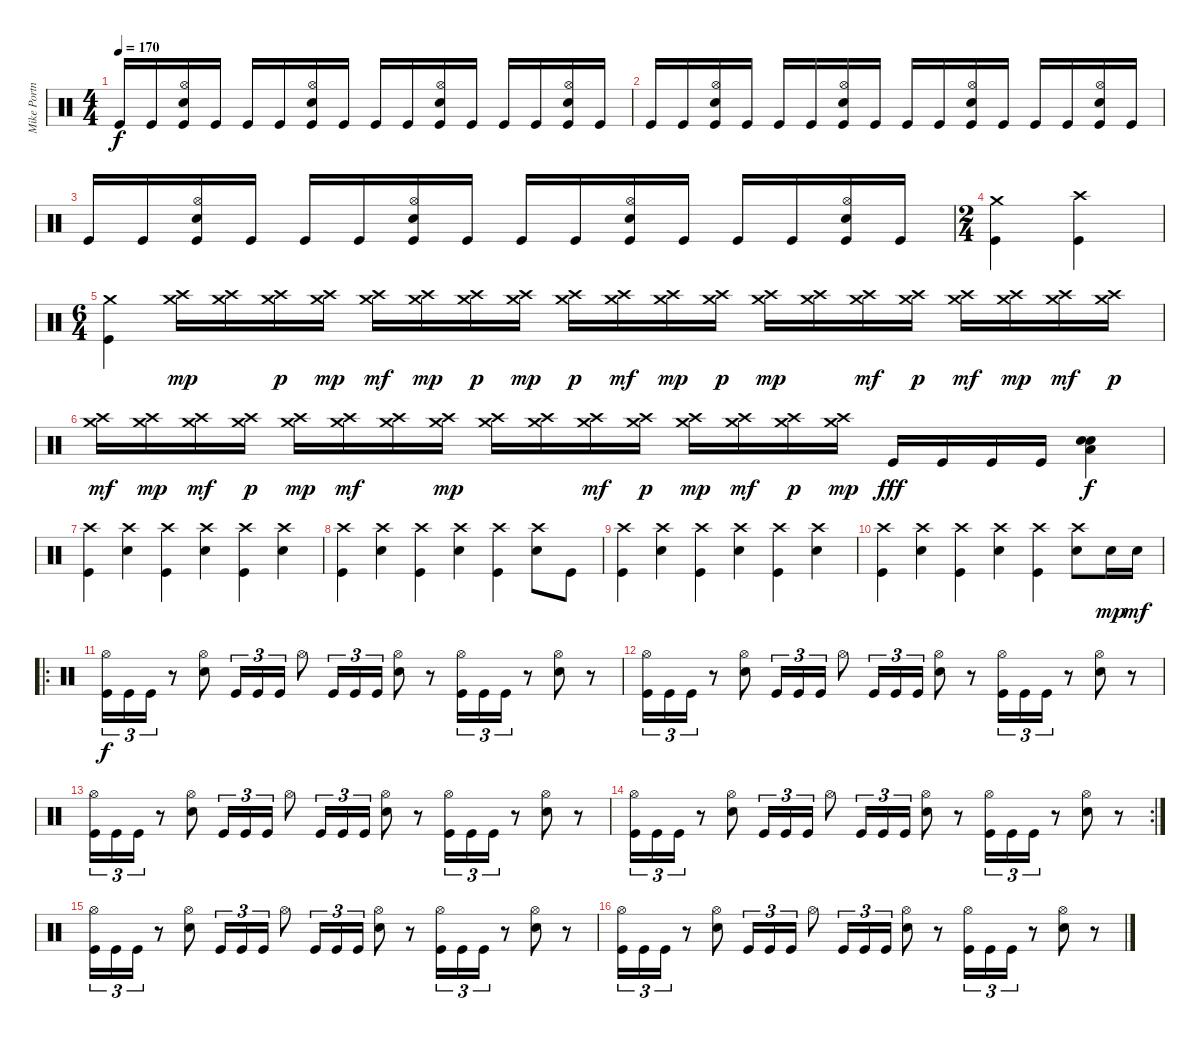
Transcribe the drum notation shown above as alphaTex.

\track ("Mike Portnoy" "Mike Portn") {instrument percussion}
\staff {score}
\articulation defaults
\ts (4 4)
\tempo 170
\clef neutral
\ks c "Kick (hit)".16{dy f} "Kick (hit)".16
("Hi-Hat (open)" "Kick (hit)" "Electric Snare (hit)").16 "Kick (hit)".16 "Kick (hit)".16 "Kick (hit)".16 ("Hi-Hat (open)" "Kick (hit)" "Electric Snare (hit)").16 "Kick (hit)".16 "Kick (hit)".16 "Kick (hit)".16 ("Hi-Hat (open)" "Kick (hit)" "Electric Snare (hit)").16 "Kick (hit)".16 "Kick (hit)".16 "Kick (hit)".16 ("Hi-Hat (open)" "Kick (hit)" "Electric Snare (hit)").16 "Kick (hit)".16 |
"Kick (hit)".16 "Kick (hit)".16 ("Hi-Hat (open)" "Kick (hit)" "Electric Snare (hit)").16 "Kick (hit)".16 "Kick (hit)".16 "Kick (hit)".16 ("Hi-Hat (open)" "Kick (hit)" "Electric Snare (hit)").16 "Kick (hit)".16 "Kick (hit)".16 "Kick (hit)".16 ("Hi-Hat (open)" "Kick (hit)" "Electric Snare (hit)").16 "Kick (hit)".16 "Kick (hit)".16 "Kick (hit)".16 ("Hi-Hat (open)" "Kick (hit)" "Electric Snare (hit)").16 "Kick (hit)".16 |
"Kick (hit)".16 "Kick (hit)".16 ("Hi-Hat (open)" "Kick (hit)" "Electric Snare (hit)").16 "Kick (hit)".16 "Kick (hit)".16 "Kick (hit)".16 ("Hi-Hat (open)" "Kick (hit)" "Electric Snare (hit)").16 "Kick (hit)".16 "Kick (hit)".16 "Kick (hit)".16 ("Hi-Hat (open)" "Kick (hit)" "Electric Snare (hit)").16 "Kick (hit)".16 "Kick (hit)".16 "Kick (hit)".16 ("Hi-Hat (open)" "Kick (hit)" "Electric Snare (hit)").16 "Kick (hit)".16 |
\ts (2 4)
("Crash medium (hit)" "Kick (hit)").4 ("Crash high (hit)" "Kick (hit)").4 |
\ts (6 4)
("Crash medium (hit)" "Kick (hit)").4 ("Crash medium (hit)" "Crash high (hit)").16{dy mp} ("Crash medium (hit)" "Crash high (hit)").16 ("Crash medium (hit)" "Crash high (hit)").16{dy p} ("Crash medium (hit)" "Crash high (hit)").16{dy mp} ("Crash medium (hit)" "Crash high (hit)").16{dy mf} ("Crash medium (hit)" "Crash high (hit)").16{dy mp} ("Crash medium (hit)" "Crash high (hit)").16{dy p} ("Crash medium (hit)" "Crash high (hit)").16{dy mp} ("Crash medium (hit)" "Crash high (hit)").16{dy p} ("Crash medium (hit)" "Crash high (hit)").16{dy mf} ("Crash medium (hit)" "Crash high (hit)").16{dy mp} ("Crash medium (hit)" "Crash high (hit)").16{dy p} ("Crash medium (hit)" "Crash high (hit)").16{dy mp} ("Crash medium (hit)" "Crash high (hit)").16 ("Crash medium (hit)" "Crash high (hit)").16{dy mf} ("Crash medium (hit)" "Crash high (hit)").16{dy p} ("Crash medium (hit)" "Crash high (hit)").16{dy mf} ("Crash medium (hit)" "Crash high (hit)").16{dy mp} ("Crash medium (hit)" "Crash high (hit)").16{dy mf} ("Crash medium (hit)" "Crash high (hit)").16{dy p} |
("Crash medium (hit)" "Crash high (hit)").16{dy mf} ("Crash medium (hit)" "Crash high (hit)").16{dy mp} ("Crash medium (hit)" "Crash high (hit)").16{dy mf} ("Crash medium (hit)" "Crash high (hit)").16{dy p} ("Crash medium (hit)" "Crash high (hit)").16{dy mp} ("Crash medium (hit)" "Crash high (hit)").16{dy mf} ("Crash medium (hit)" "Crash high (hit)").16 ("Crash medium (hit)" "Crash high (hit)").16{dy mp} ("Crash medium (hit)" "Crash high (hit)").16 ("Crash medium (hit)" "Crash high (hit)").16 ("Crash medium (hit)" "Crash high (hit)").16{dy mf} ("Crash medium (hit)" "Crash high (hit)").16{dy p} ("Crash medium (hit)" "Crash high (hit)").16{dy mp} ("Crash medium (hit)" "Crash high (hit)").16{dy mf} ("Crash medium (hit)" "Crash high (hit)").16{dy p} ("Crash medium (hit)" "Crash high (hit)").16{dy mp} "Kick (hit)".16{dy fff} "Kick (hit)".16 "Kick (hit)".16 "Kick (hit)".16 ("Electric Snare (hit)" "Electric Snare (hit)" "Low Tom (hit)").4{dy f} |
("Crash high (hit)" "Kick (hit)").4 ("Crash high (hit)" "Electric Snare (hit)").4 ("Crash high (hit)" "Kick (hit)").4 ("Crash high (hit)" "Electric Snare (hit)").4 ("Crash high (hit)" "Kick (hit)").4 ("Crash high (hit)" "Electric Snare (hit)").4 |
("Crash high (hit)" "Kick (hit)").4 ("Crash high (hit)" "Electric Snare (hit)").4 ("Crash high (hit)" "Kick (hit)").4 ("Crash high (hit)" "Electric Snare (hit)").4 ("Crash high (hit)" "Kick (hit)").4 ("Crash high (hit)" "Electric Snare (hit)").8 "Kick (hit)".8 |
("Crash high (hit)" "Kick (hit)").4 ("Crash high (hit)" "Electric Snare (hit)").4 ("Crash high (hit)" "Kick (hit)").4 ("Crash high (hit)" "Electric Snare (hit)").4 ("Crash high (hit)" "Kick (hit)").4 ("Crash high (hit)" "Electric Snare (hit)").4 |
("Crash high (hit)" "Kick (hit)").4 ("Crash high (hit)" "Electric Snare (hit)").4 ("Crash high (hit)" "Kick (hit)").4 ("Crash high (hit)" "Electric Snare (hit)").4 ("Crash high (hit)" "Kick (hit)").4 ("Crash high (hit)" "Electric Snare (hit)").8 "Electric Snare (hit)".16{dy mp} "Electric Snare (hit)".16{dy mf} |
\ro
("Hi-Hat (open)" "Kick (hit)").16{tu (3 2) dy f} "Kick (hit)".16{tu (3 2)} "Kick (hit)".16{tu (3 2)} r.8 ("Hi-Hat (open)" "Electric Snare (hit)").8 "Kick (hit)".16{tu (3 2)} "Kick (hit)".16{tu (3 2)} "Kick (hit)".16{tu (3 2)} "Hi-Hat (open)".8 "Kick (hit)".16{tu (3 2)} "Kick (hit)".16{tu (3 2)} "Kick (hit)".16{tu (3 2)} ("Hi-Hat (open)" "Electric Snare (hit)").8 r.8 ("Hi-Hat (open)" "Kick (hit)").16{tu (3 2)} "Kick (hit)".16{tu (3 2)} "Kick (hit)".16{tu (3 2)} r.8 ("Hi-Hat (open)" "Electric Snare (hit)").8 r.8 |
("Hi-Hat (open)" "Kick (hit)").16{tu (3 2)} "Kick (hit)".16{tu (3 2)} "Kick (hit)".16{tu (3 2)} r.8 ("Hi-Hat (open)" "Electric Snare (hit)").8 "Kick (hit)".16{tu (3 2)} "Kick (hit)".16{tu (3 2)} "Kick (hit)".16{tu (3 2)} "Hi-Hat (open)".8 "Kick (hit)".16{tu (3 2)} "Kick (hit)".16{tu (3 2)} "Kick (hit)".16{tu (3 2)} ("Hi-Hat (open)" "Electric Snare (hit)").8 r.8 ("Hi-Hat (open)" "Kick (hit)").16{tu (3 2)} "Kick (hit)".16{tu (3 2)} "Kick (hit)".16{tu (3 2)} r.8 ("Hi-Hat (open)" "Electric Snare (hit)").8 r.8 |
("Hi-Hat (open)" "Kick (hit)").16{tu (3 2)} "Kick (hit)".16{tu (3 2)} "Kick (hit)".16{tu (3 2)} r.8 ("Hi-Hat (open)" "Electric Snare (hit)").8 "Kick (hit)".16{tu (3 2)} "Kick (hit)".16{tu (3 2)} "Kick (hit)".16{tu (3 2)} "Hi-Hat (open)".8 "Kick (hit)".16{tu (3 2)} "Kick (hit)".16{tu (3 2)} "Kick (hit)".16{tu (3 2)} ("Hi-Hat (open)" "Electric Snare (hit)").8 r.8 ("Hi-Hat (open)" "Kick (hit)").16{tu (3 2)} "Kick (hit)".16{tu (3 2)} "Kick (hit)".16{tu (3 2)} r.8 ("Hi-Hat (open)" "Electric Snare (hit)").8 r.8 |
\rc 2
("Hi-Hat (open)" "Kick (hit)").16{tu (3 2)} "Kick (hit)".16{tu (3 2)} "Kick (hit)".16{tu (3 2)} r.8 ("Hi-Hat (open)" "Electric Snare (hit)").8 "Kick (hit)".16{tu (3 2)} "Kick (hit)".16{tu (3 2)} "Kick (hit)".16{tu (3 2)} "Hi-Hat (open)".8 "Kick (hit)".16{tu (3 2)} "Kick (hit)".16{tu (3 2)} "Kick (hit)".16{tu (3 2)} ("Hi-Hat (open)" "Electric Snare (hit)").8 r.8 ("Hi-Hat (open)" "Kick (hit)").16{tu (3 2)} "Kick (hit)".16{tu (3 2)} "Kick (hit)".16{tu (3 2)} r.8 ("Hi-Hat (open)" "Electric Snare (hit)").8 r.8 |
("Hi-Hat (open)" "Kick (hit)").16{tu (3 2)} "Kick (hit)".16{tu (3 2)} "Kick (hit)".16{tu (3 2)} r.8 ("Hi-Hat (open)" "Electric Snare (hit)").8 "Kick (hit)".16{tu (3 2)} "Kick (hit)".16{tu (3 2)} "Kick (hit)".16{tu (3 2)} "Hi-Hat (open)".8 "Kick (hit)".16{tu (3 2)} "Kick (hit)".16{tu (3 2)} "Kick (hit)".16{tu (3 2)} ("Hi-Hat (open)" "Electric Snare (hit)").8 r.8 ("Hi-Hat (open)" "Kick (hit)").16{tu (3 2)} "Kick (hit)".16{tu (3 2)} "Kick (hit)".16{tu (3 2)} r.8 ("Hi-Hat (open)" "Electric Snare (hit)").8 r.8 |
("Hi-Hat (open)" "Kick (hit)").16{tu (3 2)} "Kick (hit)".16{tu (3 2)} "Kick (hit)".16{tu (3 2)} r.8 ("Hi-Hat (open)" "Electric Snare (hit)").8 "Kick (hit)".16{tu (3 2)} "Kick (hit)".16{tu (3 2)} "Kick (hit)".16{tu (3 2)} "Hi-Hat (open)".8 "Kick (hit)".16{tu (3 2)} "Kick (hit)".16{tu (3 2)} "Kick (hit)".16{tu (3 2)} ("Hi-Hat (open)" "Electric Snare (hit)").8 r.8 ("Hi-Hat (open)" "Kick (hit)").16{tu (3 2)} "Kick (hit)".16{tu (3 2)} "Kick (hit)".16{tu (3 2)} r.8 ("Hi-Hat (open)" "Electric Snare (hit)").8 r.8
